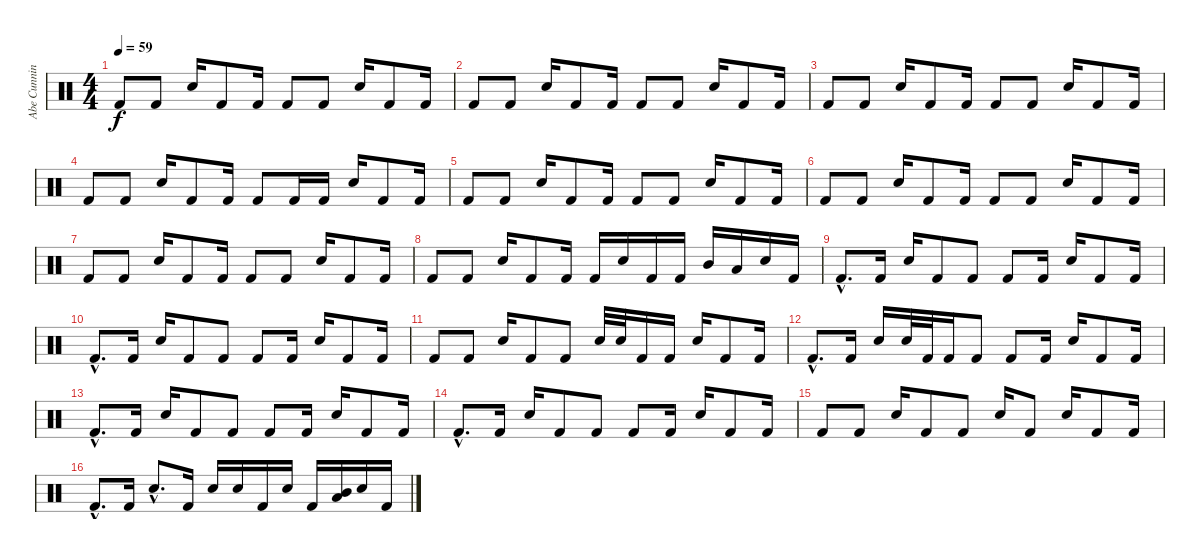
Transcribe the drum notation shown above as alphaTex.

\track ("Abe Cunningham Toms& Snare" "Abe Cunnin") {instrument percussion}
\staff {score}
\articulation defaults
\ts (4 4)
\tempo 59
\clef neutral
\ks c "Kick (hit) 2".8{dy f} "Kick (hit) 2".8 "Snare (hit) 2".16 "Kick (hit) 2".8 "Kick (hit) 2".16 "Kick (hit) 2".8 "Kick (hit) 2".8 "Snare (hit) 2".16 "Kick (hit) 2".8 "Kick (hit) 2".16
|
"Kick (hit) 2".8 "Kick (hit) 2".8 "Snare (hit) 2".16 "Kick (hit) 2".8 "Kick (hit) 2".16 "Kick (hit) 2".8 "Kick (hit) 2".8 "Snare (hit) 2".16 "Kick (hit) 2".8 "Kick (hit) 2".16 |
"Kick (hit) 2".8 "Kick (hit) 2".8 "Snare (hit) 2".16 "Kick (hit) 2".8 "Kick (hit) 2".16 "Kick (hit) 2".8 "Kick (hit) 2".8 "Snare (hit) 2".16 "Kick (hit) 2".8 "Kick (hit) 2".16 |
"Kick (hit) 2".8 "Kick (hit) 2".8 "Snare (hit) 2".16 "Kick (hit) 2".8 "Kick (hit) 2".16 "Kick (hit) 2".8 "Kick (hit) 2".16 "Kick (hit) 2".16 "Snare (hit) 2".16 "Kick (hit) 2".8 "Kick (hit) 2".16 |
"Kick (hit) 2".8 "Kick (hit) 2".8 "Snare (hit) 2".16 "Kick (hit) 2".8 "Kick (hit) 2".16 "Kick (hit) 2".8 "Kick (hit) 2".8 "Snare (hit) 2".16 "Kick (hit) 2".8 "Kick (hit) 2".16 |
"Kick (hit) 2".8 "Kick (hit) 2".8 "Snare (hit) 2".16 "Kick (hit) 2".8 "Kick (hit) 2".16 "Kick (hit) 2".8 "Kick (hit) 2".8 "Snare (hit) 2".16 "Kick (hit) 2".8 "Kick (hit) 2".16 |
"Kick (hit) 2".8 "Kick (hit) 2".8 "Snare (hit) 2".16 "Kick (hit) 2".8 "Kick (hit) 2".16 "Kick (hit) 2".8 "Kick (hit) 2".8 "Snare (hit) 2".16 "Kick (hit) 2".8 "Kick (hit) 2".16 |
"Kick (hit) 2".8 "Kick (hit) 2".8 "Snare (hit) 2".16 "Kick (hit) 2".8 "Kick (hit) 2".16 "Kick (hit) 2".16 "Snare (hit) 2".16 "Kick (hit) 2".16 "Kick (hit) 2".16 "Mid Tom (hit)".16 "Low Tom (hit)".16 "Snare (hit) 2".16 "Kick (hit) 2".16 |
"Kick (hit) 2"{hac}.8{d} "Kick (hit) 2".16 "Snare (hit) 2".16 "Kick (hit) 2".8 "Kick (hit) 2".8 "Kick (hit) 2".8 "Kick (hit) 2".16 "Snare (hit) 2".16 "Kick (hit) 2".8 "Kick (hit) 2".16 |
"Kick (hit) 2"{hac}.8{d} "Kick (hit) 2".16 "Snare (hit) 2".16 "Kick (hit) 2".8 "Kick (hit) 2".8 "Kick (hit) 2".8 "Kick (hit) 2".16 "Snare (hit) 2".16 "Kick (hit) 2".8 "Kick (hit) 2".16 |
"Kick (hit) 2".8 "Kick (hit) 2".8 "Snare (hit) 2".16 "Kick (hit) 2".8 "Kick (hit) 2".8 "Snare (hit) 2".32 "Snare (hit) 2".32 "Kick (hit) 2".16 "Kick (hit) 2".16 "Electric Snare (hit)".16 "Kick (hit) 2".8 "Kick (hit) 2".16 |
"Kick (hit) 2"{hac}.8{d} "Kick (hit) 2".16 "Snare (hit) 2".16 "Snare (hit) 2".32 "Kick (hit) 2".32 "Kick (hit) 2".16 "Kick (hit) 2".8 "Kick (hit) 2".8 "Kick (hit) 2".16 "Snare (hit) 2".16 "Kick (hit) 2".8 "Kick (hit) 2".16 |
"Kick (hit) 2"{hac}.8{d} "Kick (hit) 2".16 "Snare (hit) 2".16 "Kick (hit) 2".8 "Kick (hit) 2".8 "Kick (hit) 2".8 "Kick (hit) 2".16 "Snare (hit) 2".16 "Kick (hit) 2".8 "Kick (hit) 2".16 |
"Kick (hit) 2"{hac}.8{d} "Kick (hit) 2".16 "Snare (hit) 2".16 "Kick (hit) 2".8 "Kick (hit) 2".8 "Kick (hit) 2".8 "Kick (hit) 2".16 "Snare (hit) 2".16 "Kick (hit) 2".8 "Kick (hit) 2".16 |
"Kick (hit) 2".8 "Kick (hit) 2".8 "Snare (hit) 2".16 "Kick (hit) 2".8 "Kick (hit) 2".8 "Snare (hit) 2".16 "Kick (hit) 2".8 "Snare (hit) 2".16 "Kick (hit) 2".8 "Kick (hit) 2".16 |
"Kick (hit) 2"{hac}.8{d} "Kick (hit) 2".16 "Snare (hit) 2"{hac}.8{d} "Kick (hit) 2".16 "Snare (hit) 2".16 "Snare (hit) 2".16 "Kick (hit) 2".16 "Snare (hit) 2".16 "Kick (hit) 2".16 ("Mid Tom (hit)" "Low Tom (hit)").16 "Snare (hit) 2".16 "Kick (hit) 2".16
